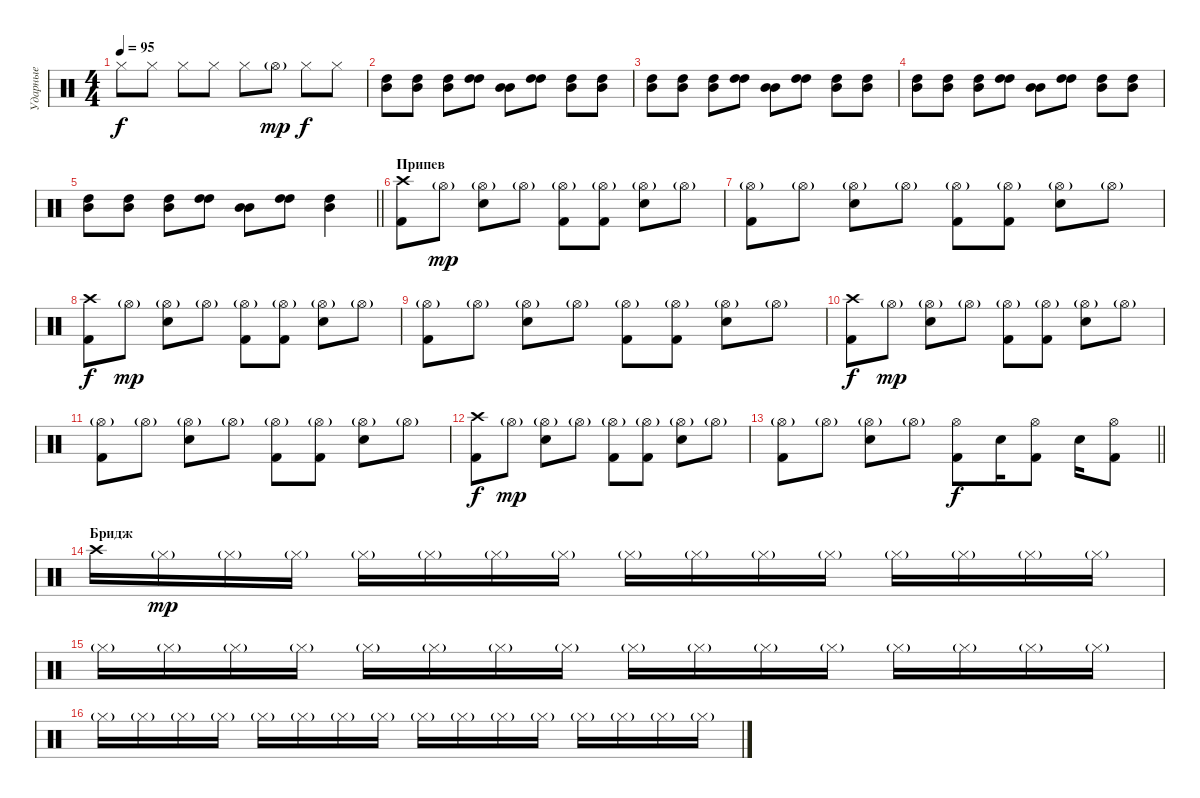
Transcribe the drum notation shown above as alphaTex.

\track ("Ударные" "Ударные") {instrument percussion}
\staff {score}
\articulation defaults
\ts (4 4)
\tempo 95
\clef neutral
\ks c "Hi-Hat (closed)".8{dy f} "Hi-Hat (closed)".8 "Hi-Hat (closed)".8 "Hi-Hat (closed)".8 "Hi-Hat (closed)".8 "Hi-Hat (open)"{g}.8{dy mp} "Hi-Hat (closed)".8{dy f} "Hi-Hat (closed)".8
|
("Mid Tom (hit)" "High Tom (hit)").8 ("Mid Tom (hit)" "High Tom (hit)").8 ("High Tom (hit)" "Mid Tom (hit)").8 ("High Tom (hit)" "High Tom (hit)").8 ("Mid Tom (hit)" "Mid Tom (hit)").8 ("High Tom (hit)" "High Tom (hit)").8 ("High Tom (hit)" "Mid Tom (hit)").8 ("High Tom (hit)" "Mid Tom (hit)").8 |
("Mid Tom (hit)" "High Tom (hit)").8 ("Mid Tom (hit)" "High Tom (hit)").8 ("High Tom (hit)" "Mid Tom (hit)").8 ("High Tom (hit)" "High Tom (hit)").8 ("Mid Tom (hit)" "Mid Tom (hit)").8 ("High Tom (hit)" "High Tom (hit)").8 ("High Tom (hit)" "Mid Tom (hit)").8 ("High Tom (hit)" "Mid Tom (hit)").8 |
("Mid Tom (hit)" "High Tom (hit)").8 ("Mid Tom (hit)" "High Tom (hit)").8 ("High Tom (hit)" "Mid Tom (hit)").8 ("High Tom (hit)" "High Tom (hit)").8 ("Mid Tom (hit)" "Mid Tom (hit)").8 ("High Tom (hit)" "High Tom (hit)").8 ("High Tom (hit)" "Mid Tom (hit)").8 ("High Tom (hit)" "Mid Tom (hit)").8 |
\barLineRight lightlight
("Mid Tom (hit)" "High Tom (hit)").8 ("Mid Tom (hit)" "High Tom (hit)").8 ("High Tom (hit)" "Mid Tom (hit)").8 ("High Tom (hit)" "High Tom (hit)").8 ("Mid Tom (hit)" "Mid Tom (hit)").8 ("High Tom (hit)" "High Tom (hit)").8 ("High Tom (hit)" "Mid Tom (hit)").4 |
\section ("" "Припев")
("Crash high (hit)" "Kick (hit) 2").8 "Hi-Hat (open)"{g}.8{dy mp} ("Hi-Hat (open)"{g} "Snare (hit) 2").8 "Hi-Hat (open)"{g}.8 ("Hi-Hat (open)"{g} "Kick (hit) 2").8 ("Hi-Hat (open)"{g} "Kick (hit) 2").8 ("Hi-Hat (open)"{g} "Snare (hit) 2").8 "Hi-Hat (open)"{g}.8 |
("Hi-Hat (open)"{g} "Kick (hit) 2").8 "Hi-Hat (open)"{g}.8 ("Hi-Hat (open)"{g} "Snare (hit) 2").8 "Hi-Hat (open)"{g}.8 ("Hi-Hat (open)"{g} "Kick (hit) 2").8 ("Hi-Hat (open)"{g} "Kick (hit) 2").8 ("Hi-Hat (open)"{g} "Snare (hit) 2").8 "Hi-Hat (open)"{g}.8 |
("Crash high (hit)" "Kick (hit) 2").8{dy f} "Hi-Hat (open)"{g}.8{dy mp} ("Hi-Hat (open)"{g} "Snare (hit) 2").8 "Hi-Hat (open)"{g}.8 ("Hi-Hat (open)"{g} "Kick (hit) 2").8 ("Hi-Hat (open)"{g} "Kick (hit) 2").8 ("Hi-Hat (open)"{g} "Snare (hit) 2").8 "Hi-Hat (open)"{g}.8 |
("Hi-Hat (open)"{g} "Kick (hit) 2").8 "Hi-Hat (open)"{g}.8 ("Hi-Hat (open)"{g} "Snare (hit) 2").8 "Hi-Hat (open)"{g}.8 ("Hi-Hat (open)"{g} "Kick (hit) 2").8 ("Hi-Hat (open)"{g} "Kick (hit) 2").8 ("Hi-Hat (open)"{g} "Snare (hit) 2").8 "Hi-Hat (open)"{g}.8 |
("Crash high (hit)" "Kick (hit) 2").8{dy f} "Hi-Hat (open)"{g}.8{dy mp} ("Hi-Hat (open)"{g} "Snare (hit) 2").8 "Hi-Hat (open)"{g}.8 ("Hi-Hat (open)"{g} "Kick (hit) 2").8 ("Hi-Hat (open)"{g} "Kick (hit) 2").8 ("Hi-Hat (open)"{g} "Snare (hit) 2").8 "Hi-Hat (open)"{g}.8 |
("Hi-Hat (open)"{g} "Kick (hit) 2").8 "Hi-Hat (open)"{g}.8 ("Hi-Hat (open)"{g} "Snare (hit) 2").8 "Hi-Hat (open)"{g}.8 ("Hi-Hat (open)"{g} "Kick (hit) 2").8 ("Hi-Hat (open)"{g} "Kick (hit) 2").8 ("Hi-Hat (open)"{g} "Snare (hit) 2").8 "Hi-Hat (open)"{g}.8 |
("Crash high (hit)" "Kick (hit) 2").8{dy f} "Hi-Hat (open)"{g}.8{dy mp} ("Hi-Hat (open)"{g} "Snare (hit) 2").8 "Hi-Hat (open)"{g}.8 ("Hi-Hat (open)"{g} "Kick (hit) 2").8 ("Hi-Hat (open)"{g} "Kick (hit) 2").8 ("Hi-Hat (open)"{g} "Snare (hit) 2").8 "Hi-Hat (open)"{g}.8 |
\barLineRight lightlight
("Hi-Hat (open)"{g} "Kick (hit) 2").8 "Hi-Hat (open)"{g}.8 ("Hi-Hat (open)"{g} "Snare (hit) 2").8 "Hi-Hat (open)"{g}.8 ("Kick (hit) 2" "Hi-Hat (open)").8{dy f} "Electric Snare (hit)".16 ("Hi-Hat (open)" "Kick (hit) 2").8 "Electric Snare (hit)".16 ("Hi-Hat (open)" "Kick (hit) 2").8 |
\section ("" "Бридж")
"Crash high (hit)".16 "Hi-Hat (closed)"{g}.16{dy mp} "Hi-Hat (closed)"{g}.16 "Hi-Hat (closed)"{g}.16 "Hi-Hat (closed)"{g}.16 "Hi-Hat (closed)"{g}.16 "Hi-Hat (closed)"{g}.16 "Hi-Hat (closed)"{g}.16 "Hi-Hat (closed)"{g}.16 "Hi-Hat (closed)"{g}.16 "Hi-Hat (closed)"{g}.16 "Hi-Hat (closed)"{g}.16 "Hi-Hat (closed)"{g}.16 "Hi-Hat (closed)"{g}.16 "Hi-Hat (closed)"{g}.16 "Hi-Hat (closed)"{g}.16 |
"Hi-Hat (closed)"{g}.16 "Hi-Hat (closed)"{g}.16 "Hi-Hat (closed)"{g}.16 "Hi-Hat (closed)"{g}.16 "Hi-Hat (closed)"{g}.16 "Hi-Hat (closed)"{g}.16 "Hi-Hat (closed)"{g}.16 "Hi-Hat (closed)"{g}.16 "Hi-Hat (closed)"{g}.16 "Hi-Hat (closed)"{g}.16 "Hi-Hat (closed)"{g}.16 "Hi-Hat (closed)"{g}.16 "Hi-Hat (closed)"{g}.16 "Hi-Hat (closed)"{g}.16 "Hi-Hat (closed)"{g}.16 "Hi-Hat (closed)"{g}.16 |
"Hi-Hat (closed)"{g}.16 "Hi-Hat (closed)"{g}.16 "Hi-Hat (closed)"{g}.16 "Hi-Hat (closed)"{g}.16 "Hi-Hat (closed)"{g}.16 "Hi-Hat (closed)"{g}.16 "Hi-Hat (closed)"{g}.16 "Hi-Hat (closed)"{g}.16 "Hi-Hat (closed)"{g}.16 "Hi-Hat (closed)"{g}.16 "Hi-Hat (closed)"{g}.16 "Hi-Hat (closed)"{g}.16 "Hi-Hat (closed)"{g}.16 "Hi-Hat (closed)"{g}.16 "Hi-Hat (closed)"{g}.16 "Hi-Hat (closed)"{g}.16
